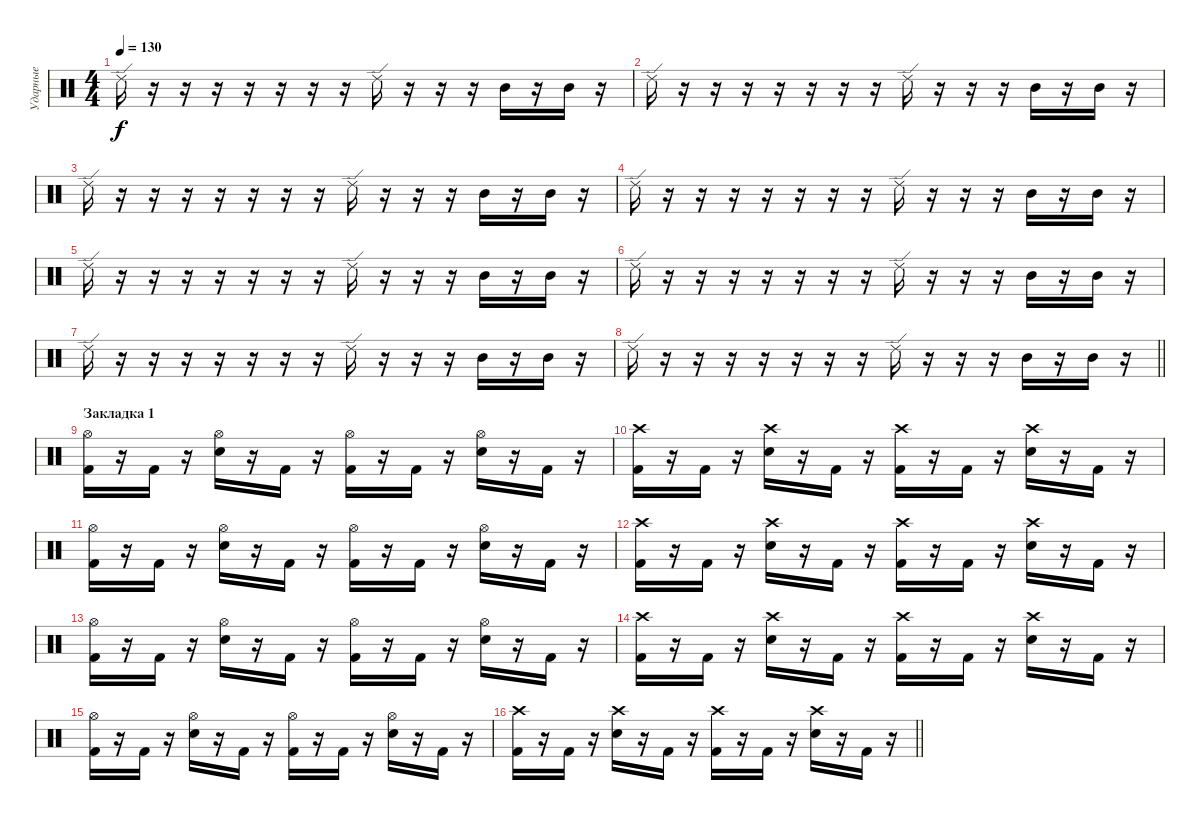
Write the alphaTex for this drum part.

\track ("Ударные" "Ударные") {instrument percussion}
\staff {score}
\articulation defaults
\ts (4 4)
\tempo 130
\clef neutral
\ks c "Ride (edge) 2".16{dy f}
r.16 r.16 r.16 r.16 r.16 r.16 r.16 "Ride (edge) 2".16 r.16 r.16 r.16 "Mid Tom (hit)".16 r.16 "Mid Tom (hit)".16 r.16 |
"Ride (edge) 2".16 r.16 r.16 r.16 r.16 r.16 r.16 r.16 "Ride (edge) 2".16 r.16 r.16 r.16 "Mid Tom (hit)".16 r.16 "Mid Tom (hit)".16 r.16 |
"Ride (edge) 2".16 r.16 r.16 r.16 r.16 r.16 r.16 r.16 "Ride (edge) 2".16 r.16 r.16 r.16 "Mid Tom (hit)".16 r.16 "Mid Tom (hit)".16 r.16 |
"Ride (edge) 2".16 r.16 r.16 r.16 r.16 r.16 r.16 r.16 "Ride (edge) 2".16 r.16 r.16 r.16 "Mid Tom (hit)".16 r.16 "Mid Tom (hit)".16 r.16 |
"Ride (edge) 2".16 r.16 r.16 r.16 r.16 r.16 r.16 r.16 "Ride (edge) 2".16 r.16 r.16 r.16 "Mid Tom (hit)".16 r.16 "Mid Tom (hit)".16 r.16 |
"Ride (edge) 2".16 r.16 r.16 r.16 r.16 r.16 r.16 r.16 "Ride (edge) 2".16 r.16 r.16 r.16 "Mid Tom (hit)".16 r.16 "Mid Tom (hit)".16 r.16 |
"Ride (edge) 2".16 r.16 r.16 r.16 r.16 r.16 r.16 r.16 "Ride (edge) 2".16 r.16 r.16 r.16 "Mid Tom (hit)".16 r.16 "Mid Tom (hit)".16 r.16 |
\barLineRight lightlight "Ride (edge) 2".16
r.16 r.16 r.16 r.16 r.16 r.16 r.16 "Ride (edge) 2".16 r.16 r.16 r.16 "Mid Tom (hit)".16 r.16 "Mid Tom (hit)".16 r.16 |
\section ("" "Закладка 1")
("Hi-Hat (open)" "Kick (hit) 2").16 r.16 "Kick (hit) 2".16 r.16 ("Hi-Hat (open)" "Electric Snare (hit)").16 r.16 "Kick (hit) 2".16 r.16 ("Hi-Hat (open)" "Kick (hit) 2").16 r.16 "Kick (hit) 2".16 r.16 ("Hi-Hat (open)" "Electric Snare (hit)").16 r.16 "Kick (hit) 2".16 r.16 |
("Crash high (hit)" "Kick (hit) 2").16 r.16 "Kick (hit) 2".16 r.16 ("Crash high (hit)" "Electric Snare (hit)").16 r.16 "Kick (hit) 2".16 r.16 ("Crash high (hit)" "Kick (hit) 2").16 r.16 "Kick (hit) 2".16 r.16 ("Crash high (hit)" "Electric Snare (hit)").16 r.16 "Kick (hit) 2".16 r.16 |
("Hi-Hat (open)" "Kick (hit) 2").16 r.16 "Kick (hit) 2".16 r.16 ("Hi-Hat (open)" "Electric Snare (hit)").16 r.16 "Kick (hit) 2".16 r.16 ("Hi-Hat (open)" "Kick (hit) 2").16 r.16 "Kick (hit) 2".16 r.16 ("Hi-Hat (open)" "Electric Snare (hit)").16 r.16 "Kick (hit) 2".16 r.16 |
("Crash high (hit)" "Kick (hit) 2").16 r.16 "Kick (hit) 2".16 r.16 ("Crash high (hit)" "Electric Snare (hit)").16 r.16 "Kick (hit) 2".16 r.16 ("Crash high (hit)" "Kick (hit) 2").16 r.16 "Kick (hit) 2".16 r.16 ("Crash high (hit)" "Electric Snare (hit)").16 r.16 "Kick (hit) 2".16 r.16 |
("Hi-Hat (open)" "Kick (hit) 2").16 r.16 "Kick (hit) 2".16 r.16 ("Hi-Hat (open)" "Electric Snare (hit)").16 r.16 "Kick (hit) 2".16 r.16 ("Hi-Hat (open)" "Kick (hit) 2").16 r.16 "Kick (hit) 2".16 r.16 ("Hi-Hat (open)" "Electric Snare (hit)").16 r.16 "Kick (hit) 2".16 r.16 |
("Crash high (hit)" "Kick (hit) 2").16 r.16 "Kick (hit) 2".16 r.16 ("Crash high (hit)" "Electric Snare (hit)").16 r.16 "Kick (hit) 2".16 r.16 ("Crash high (hit)" "Kick (hit) 2").16 r.16 "Kick (hit) 2".16 r.16 ("Crash high (hit)" "Electric Snare (hit)").16 r.16 "Kick (hit) 2".16 r.16 |
("Hi-Hat (open)" "Kick (hit) 2").16 r.16 "Kick (hit) 2".16 r.16 ("Hi-Hat (open)" "Electric Snare (hit)").16 r.16 "Kick (hit) 2".16 r.16 ("Hi-Hat (open)" "Kick (hit) 2").16 r.16 "Kick (hit) 2".16 r.16 ("Hi-Hat (open)" "Electric Snare (hit)").16 r.16 "Kick (hit) 2".16 r.16 |
\barLineRight lightlight
("Crash high (hit)" "Kick (hit) 2").16 r.16 "Kick (hit) 2".16 r.16 ("Crash high (hit)" "Electric Snare (hit)").16 r.16 "Kick (hit) 2".16 r.16 ("Crash high (hit)" "Kick (hit) 2").16 r.16 "Kick (hit) 2".16 r.16 ("Crash high (hit)" "Electric Snare (hit)").16 r.16 "Kick (hit) 2".16 r.16
